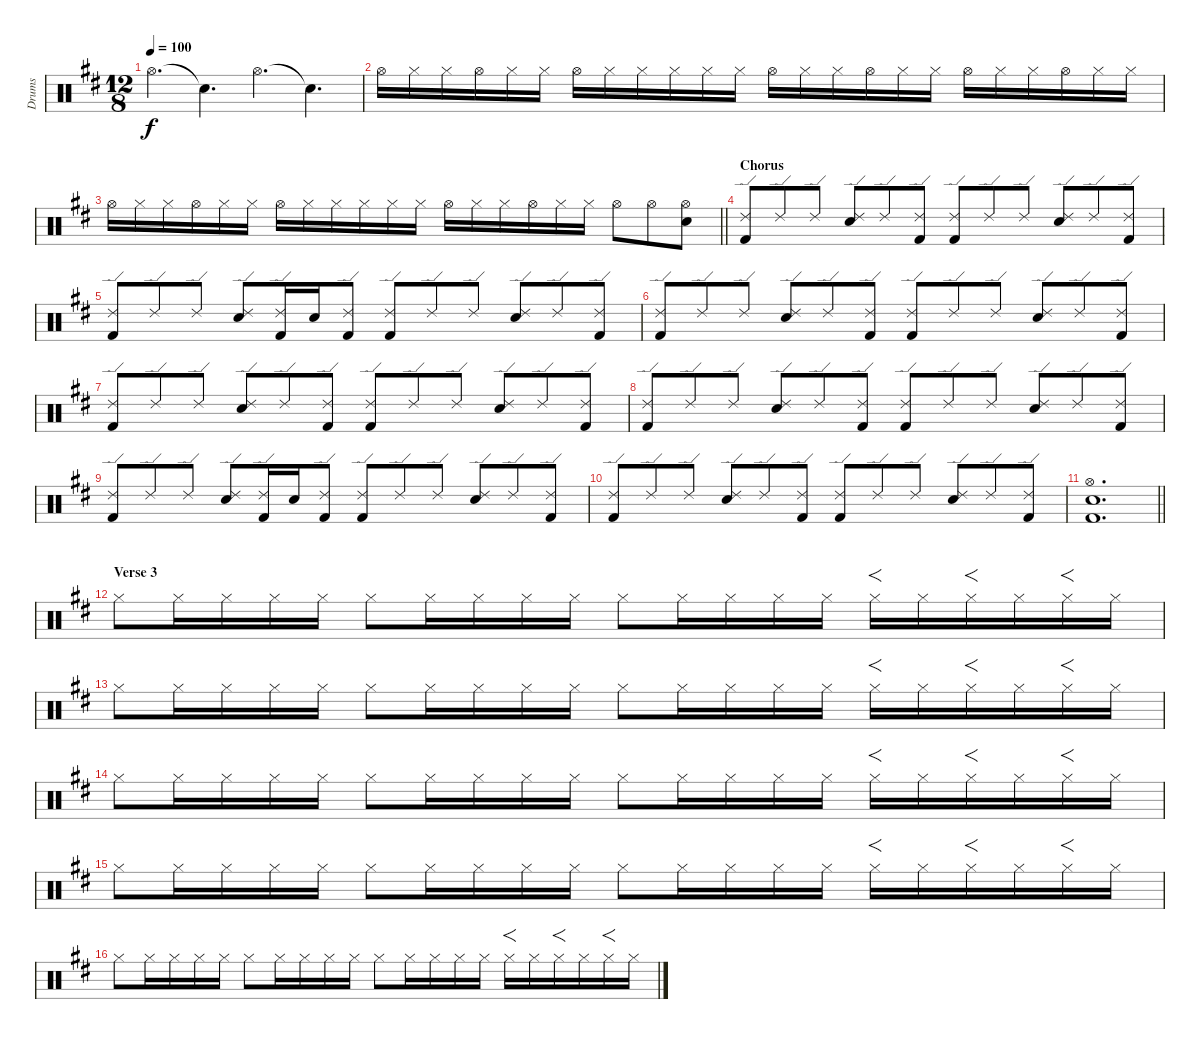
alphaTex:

\track ("Drums" "Drums") {instrument percussion}
\staff {score}
\articulation defaults
\ts (12 8)
\tempo 100
\clef neutral
\ks d "Hi-Hat (open)".4{d dy f} "Snare (hit)"{t}.4{d} "Hi-Hat (open)".4{d} "Snare (hit)"{t}.4{d}
|
"Hi-Hat (open)".16 "Hi-Hat (closed)".16 "Hi-Hat (closed)".16 "Hi-Hat (open)".16 "Hi-Hat (closed)".16 "Hi-Hat (closed)".16 "Hi-Hat (open)".16 "Hi-Hat (closed)".16 "Hi-Hat (closed)".16 "Hi-Hat (closed)".16 "Hi-Hat (closed)".16 "Hi-Hat (closed)".16 "Hi-Hat (open)".16 "Hi-Hat (closed)".16 "Hi-Hat (closed)".16 "Hi-Hat (open)".16 "Hi-Hat (closed)".16 "Hi-Hat (closed)".16 "Hi-Hat (open)".16 "Hi-Hat (closed)".16 "Hi-Hat (closed)".16 "Hi-Hat (open)".16 "Hi-Hat (closed)".16 "Hi-Hat (closed)".16 |
\barLineRight lightlight "Hi-Hat (open)".16 "Hi-Hat (closed)".16 "Hi-Hat (closed)".16 "Hi-Hat (open)".16 "Hi-Hat (closed)".16 "Hi-Hat (closed)".16 "Hi-Hat (open)".16 "Hi-Hat (closed)".16 "Hi-Hat (closed)".16 "Hi-Hat (closed)".16 "Hi-Hat (closed)".16 "Hi-Hat (closed)".16 "Hi-Hat (open)".16 "Hi-Hat (closed)".16 "Hi-Hat (closed)".16 "Hi-Hat (open)".16 "Hi-Hat (closed)".16 "Hi-Hat (closed)".16 "Hi-Hat (open)".8 "Hi-Hat (open)".8
("Hi-Hat (open)" "Snare (hit) 2").8 |
\section ("" "Chorus")
("Ride (edge) 2" "Kick (hit) 2").8 "Ride (edge) 2".8 "Ride (edge) 2".8 ("Ride (edge) 2" "Snare (hit) 2").8 "Ride (edge) 2".8 ("Ride (edge) 2" "Kick (hit) 2").8 ("Ride (edge) 2" "Kick (hit) 2").8 "Ride (edge) 2".8 "Ride (edge) 2".8 ("Ride (edge) 2" "Snare (hit) 2").8 "Ride (edge) 2".8 ("Ride (edge) 2" "Kick (hit) 2").8 |
("Ride (edge) 2" "Kick (hit) 2").8 "Ride (edge) 2".8 "Ride (edge) 2".8 ("Ride (edge) 2" "Snare (hit) 2").8 ("Ride (edge) 2" "Kick (hit) 2").16 "Snare (hit) 2".16 ("Ride (edge) 2" "Kick (hit) 2").8 ("Ride (edge) 2" "Kick (hit) 2").8 "Ride (edge) 2".8 "Ride (edge) 2".8 ("Ride (edge) 2" "Snare (hit) 2").8 "Ride (edge) 2".8 ("Ride (edge) 2" "Kick (hit) 2").8 |
("Ride (edge) 2" "Kick (hit) 2").8 "Ride (edge) 2".8 "Ride (edge) 2".8 ("Ride (edge) 2" "Snare (hit) 2").8 "Ride (edge) 2".8 ("Ride (edge) 2" "Kick (hit) 2").8 ("Ride (edge) 2" "Kick (hit) 2").8 "Ride (edge) 2".8 "Ride (edge) 2".8 ("Ride (edge) 2" "Snare (hit) 2").8 "Ride (edge) 2".8 ("Ride (edge) 2" "Kick (hit) 2").8 |
("Ride (edge) 2" "Kick (hit) 2").8 "Ride (edge) 2".8 "Ride (edge) 2".8 ("Ride (edge) 2" "Snare (hit) 2").8 "Ride (edge) 2".8 ("Ride (edge) 2" "Kick (hit) 2").8 ("Ride (edge) 2" "Kick (hit) 2").8 "Ride (edge) 2".8 "Ride (edge) 2".8 ("Ride (edge) 2" "Snare (hit) 2").8 "Ride (edge) 2".8 ("Ride (edge) 2" "Kick (hit) 2").8 |
("Ride (edge) 2" "Kick (hit) 2").8 "Ride (edge) 2".8 "Ride (edge) 2".8 ("Ride (edge) 2" "Snare (hit) 2").8 "Ride (edge) 2".8 ("Ride (edge) 2" "Kick (hit) 2").8 ("Ride (edge) 2" "Kick (hit) 2").8 "Ride (edge) 2".8 "Ride (edge) 2".8 ("Ride (edge) 2" "Snare (hit) 2").8 "Ride (edge) 2".8 ("Ride (edge) 2" "Kick (hit) 2").8 |
("Ride (edge) 2" "Kick (hit) 2").8 "Ride (edge) 2".8 "Ride (edge) 2".8 ("Ride (edge) 2" "Snare (hit) 2").8 ("Ride (edge) 2" "Kick (hit) 2").16 "Snare (hit) 2".16 ("Ride (edge) 2" "Kick (hit) 2").8 ("Ride (edge) 2" "Kick (hit) 2").8 "Ride (edge) 2".8 "Ride (edge) 2".8 ("Ride (edge) 2" "Snare (hit) 2").8 "Ride (edge) 2".8 ("Ride (edge) 2" "Kick (hit) 2").8 |
("Ride (edge) 2" "Kick (hit) 2").8 "Ride (edge) 2".8 "Ride (edge) 2".8 ("Ride (edge) 2" "Snare (hit) 2").8 "Ride (edge) 2".8 ("Ride (edge) 2" "Kick (hit) 2").8 ("Ride (edge) 2" "Kick (hit) 2").8 "Ride (edge) 2".8 "Ride (edge) 2".8 ("Ride (edge) 2" "Snare (hit) 2").8 "Ride (edge) 2".8 ("Ride (edge) 2" "Kick (hit) 2").8 |
\barLineRight lightlight
("Hi-Hat (open)" "Snare (hit) 2" "Kick (hit) 2").1{d} |
\section ("" "Verse 3")
"Hi-Hat (closed)".8 "Hi-Hat (closed)".16 "Hi-Hat (closed)".16 "Hi-Hat (closed)".16 "Hi-Hat (closed)".16 "Hi-Hat (closed)".8 "Hi-Hat (closed)".16 "Hi-Hat (closed)".16 "Hi-Hat (closed)".16 "Hi-Hat (closed)".16 "Hi-Hat (closed)".8 "Hi-Hat (closed)".16 "Hi-Hat (closed)".16 "Hi-Hat (closed)".16 "Hi-Hat (closed)".16 "Hi-Hat (closed)".16{f} "Hi-Hat (closed)".16 "Hi-Hat (closed)".16{f} "Hi-Hat (closed)".16 "Hi-Hat (closed)".16{f} "Hi-Hat (closed)".16 |
"Hi-Hat (closed)".8 "Hi-Hat (closed)".16 "Hi-Hat (closed)".16 "Hi-Hat (closed)".16 "Hi-Hat (closed)".16 "Hi-Hat (closed)".8 "Hi-Hat (closed)".16 "Hi-Hat (closed)".16 "Hi-Hat (closed)".16 "Hi-Hat (closed)".16 "Hi-Hat (closed)".8 "Hi-Hat (closed)".16 "Hi-Hat (closed)".16 "Hi-Hat (closed)".16 "Hi-Hat (closed)".16 "Hi-Hat (closed)".16{f} "Hi-Hat (closed)".16 "Hi-Hat (closed)".16{f} "Hi-Hat (closed)".16 "Hi-Hat (closed)".16{f} "Hi-Hat (closed)".16 |
"Hi-Hat (closed)".8 "Hi-Hat (closed)".16 "Hi-Hat (closed)".16 "Hi-Hat (closed)".16 "Hi-Hat (closed)".16 "Hi-Hat (closed)".8 "Hi-Hat (closed)".16 "Hi-Hat (closed)".16 "Hi-Hat (closed)".16 "Hi-Hat (closed)".16 "Hi-Hat (closed)".8 "Hi-Hat (closed)".16 "Hi-Hat (closed)".16 "Hi-Hat (closed)".16 "Hi-Hat (closed)".16 "Hi-Hat (closed)".16{f} "Hi-Hat (closed)".16 "Hi-Hat (closed)".16{f} "Hi-Hat (closed)".16 "Hi-Hat (closed)".16{f} "Hi-Hat (closed)".16 |
"Hi-Hat (closed)".8 "Hi-Hat (closed)".16 "Hi-Hat (closed)".16 "Hi-Hat (closed)".16 "Hi-Hat (closed)".16 "Hi-Hat (closed)".8 "Hi-Hat (closed)".16 "Hi-Hat (closed)".16 "Hi-Hat (closed)".16 "Hi-Hat (closed)".16 "Hi-Hat (closed)".8 "Hi-Hat (closed)".16 "Hi-Hat (closed)".16 "Hi-Hat (closed)".16 "Hi-Hat (closed)".16 "Hi-Hat (closed)".16{f} "Hi-Hat (closed)".16 "Hi-Hat (closed)".16{f} "Hi-Hat (closed)".16 "Hi-Hat (closed)".16{f} "Hi-Hat (closed)".16 |
"Hi-Hat (closed)".8 "Hi-Hat (closed)".16 "Hi-Hat (closed)".16 "Hi-Hat (closed)".16 "Hi-Hat (closed)".16 "Hi-Hat (closed)".8 "Hi-Hat (closed)".16 "Hi-Hat (closed)".16 "Hi-Hat (closed)".16 "Hi-Hat (closed)".16 "Hi-Hat (closed)".8 "Hi-Hat (closed)".16 "Hi-Hat (closed)".16 "Hi-Hat (closed)".16 "Hi-Hat (closed)".16 "Hi-Hat (closed)".16{f} "Hi-Hat (closed)".16 "Hi-Hat (closed)".16{f} "Hi-Hat (closed)".16 "Hi-Hat (closed)".16{f} "Hi-Hat (closed)".16
